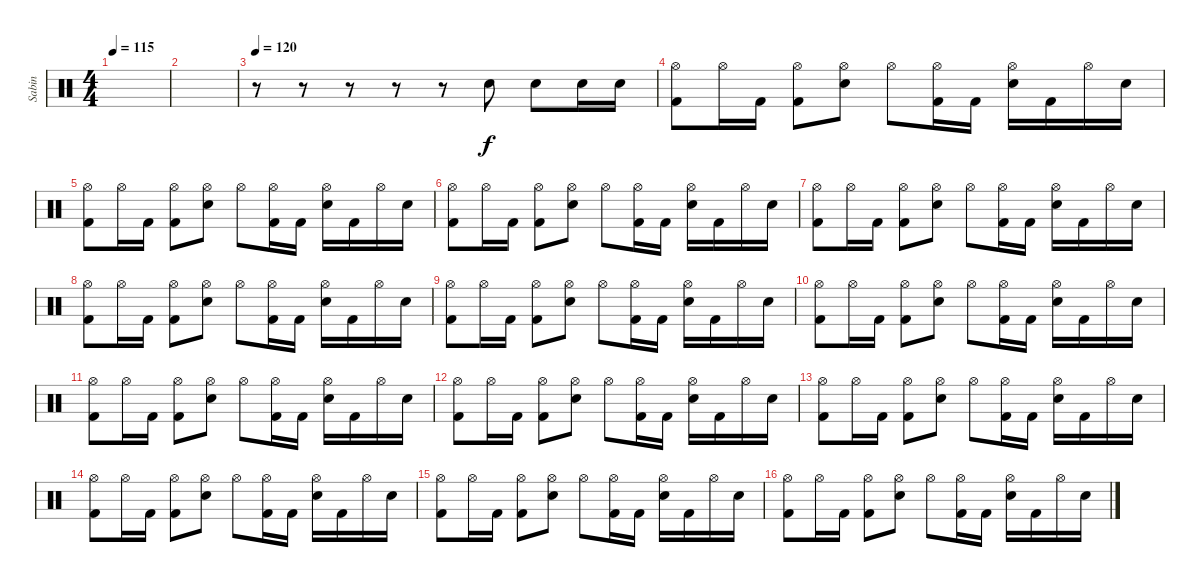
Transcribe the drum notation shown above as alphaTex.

\track ("Sabin" "Sabin") {instrument percussion}
\staff {score}
\articulation defaults
\ts (4 4)
\tempo 115
\clef neutral
\ks c
|
|
\tempo 120
r.8 r.8 r.8 r.8 r.8 "Snare (hit) 2".8 "Snare (hit) 2".8 "Snare (hit) 2".16 "Snare (hit) 2".16 |
("Hi-Hat (open)" "Kick (hit) 2").8 "Hi-Hat (open)".16 "Kick (hit) 2".16 ("Hi-Hat (open)" "Kick (hit) 2").8 ("Snare (hit) 2" "Hi-Hat (open)").8 "Hi-Hat (open)".8 ("Hi-Hat (open)" "Kick (hit) 2").16 "Kick (hit) 2".16 ("Hi-Hat (open)" "Snare (hit) 2").16 "Kick (hit) 2".16 "Hi-Hat (open)".16 "Snare (hit) 2".16 |
("Hi-Hat (open)" "Kick (hit) 2").8 "Hi-Hat (open)".16 "Kick (hit) 2".16 ("Hi-Hat (open)" "Kick (hit) 2").8 ("Snare (hit) 2" "Hi-Hat (open)").8 "Hi-Hat (open)".8 ("Hi-Hat (open)" "Kick (hit) 2").16 "Kick (hit) 2".16 ("Hi-Hat (open)" "Snare (hit) 2").16 "Kick (hit) 2".16 "Hi-Hat (open)".16 "Snare (hit) 2".16 |
("Hi-Hat (open)" "Kick (hit) 2").8 "Hi-Hat (open)".16 "Kick (hit) 2".16 ("Hi-Hat (open)" "Kick (hit) 2").8 ("Snare (hit) 2" "Hi-Hat (open)").8 "Hi-Hat (open)".8 ("Hi-Hat (open)" "Kick (hit) 2").16 "Kick (hit) 2".16 ("Hi-Hat (open)" "Snare (hit) 2").16 "Kick (hit) 2".16 "Hi-Hat (open)".16 "Snare (hit) 2".16 |
("Hi-Hat (open)" "Kick (hit) 2").8 "Hi-Hat (open)".16 "Kick (hit) 2".16 ("Hi-Hat (open)" "Kick (hit) 2").8 ("Snare (hit) 2" "Hi-Hat (open)").8 "Hi-Hat (open)".8 ("Hi-Hat (open)" "Kick (hit) 2").16 "Kick (hit) 2".16 ("Hi-Hat (open)" "Snare (hit) 2").16 "Kick (hit) 2".16 "Hi-Hat (open)".16 "Snare (hit) 2".16 |
("Hi-Hat (open)" "Kick (hit) 2").8 "Hi-Hat (open)".16 "Kick (hit) 2".16 ("Hi-Hat (open)" "Kick (hit) 2").8 ("Snare (hit) 2" "Hi-Hat (open)").8 "Hi-Hat (open)".8 ("Hi-Hat (open)" "Kick (hit) 2").16 "Kick (hit) 2".16 ("Hi-Hat (open)" "Snare (hit) 2").16 "Kick (hit) 2".16 "Hi-Hat (open)".16 "Snare (hit) 2".16 |
("Hi-Hat (open)" "Kick (hit) 2").8 "Hi-Hat (open)".16 "Kick (hit) 2".16 ("Hi-Hat (open)" "Kick (hit) 2").8 ("Snare (hit) 2" "Hi-Hat (open)").8 "Hi-Hat (open)".8 ("Hi-Hat (open)" "Kick (hit) 2").16 "Kick (hit) 2".16 ("Hi-Hat (open)" "Snare (hit) 2").16 "Kick (hit) 2".16 "Hi-Hat (open)".16 "Snare (hit) 2".16 |
("Hi-Hat (open)" "Kick (hit) 2").8 "Hi-Hat (open)".16 "Kick (hit) 2".16 ("Hi-Hat (open)" "Kick (hit) 2").8 ("Snare (hit) 2" "Hi-Hat (open)").8 "Hi-Hat (open)".8 ("Hi-Hat (open)" "Kick (hit) 2").16 "Kick (hit) 2".16 ("Hi-Hat (open)" "Snare (hit) 2").16 "Kick (hit) 2".16 "Hi-Hat (open)".16 "Snare (hit) 2".16 |
("Hi-Hat (open)" "Kick (hit) 2").8 "Hi-Hat (open)".16 "Kick (hit) 2".16 ("Hi-Hat (open)" "Kick (hit) 2").8 ("Snare (hit) 2" "Hi-Hat (open)").8 "Hi-Hat (open)".8 ("Hi-Hat (open)" "Kick (hit) 2").16 "Kick (hit) 2".16 ("Hi-Hat (open)" "Snare (hit) 2").16 "Kick (hit) 2".16 "Hi-Hat (open)".16 "Snare (hit) 2".16 |
("Hi-Hat (open)" "Kick (hit) 2").8 "Hi-Hat (open)".16 "Kick (hit) 2".16 ("Hi-Hat (open)" "Kick (hit) 2").8 ("Snare (hit) 2" "Hi-Hat (open)").8 "Hi-Hat (open)".8 ("Hi-Hat (open)" "Kick (hit) 2").16 "Kick (hit) 2".16 ("Hi-Hat (open)" "Snare (hit) 2").16 "Kick (hit) 2".16 "Hi-Hat (open)".16 "Snare (hit) 2".16 |
("Hi-Hat (open)" "Kick (hit) 2").8 "Hi-Hat (open)".16 "Kick (hit) 2".16 ("Hi-Hat (open)" "Kick (hit) 2").8 ("Snare (hit) 2" "Hi-Hat (open)").8 "Hi-Hat (open)".8 ("Hi-Hat (open)" "Kick (hit) 2").16 "Kick (hit) 2".16 ("Hi-Hat (open)" "Snare (hit) 2").16 "Kick (hit) 2".16 "Hi-Hat (open)".16 "Snare (hit) 2".16 |
("Hi-Hat (open)" "Kick (hit) 2").8 "Hi-Hat (open)".16 "Kick (hit) 2".16 ("Hi-Hat (open)" "Kick (hit) 2").8 ("Snare (hit) 2" "Hi-Hat (open)").8 "Hi-Hat (open)".8 ("Hi-Hat (open)" "Kick (hit) 2").16 "Kick (hit) 2".16 ("Hi-Hat (open)" "Snare (hit) 2").16 "Kick (hit) 2".16 "Hi-Hat (open)".16 "Snare (hit) 2".16 |
("Hi-Hat (open)" "Kick (hit) 2").8 "Hi-Hat (open)".16 "Kick (hit) 2".16 ("Hi-Hat (open)" "Kick (hit) 2").8 ("Snare (hit) 2" "Hi-Hat (open)").8 "Hi-Hat (open)".8 ("Hi-Hat (open)" "Kick (hit) 2").16 "Kick (hit) 2".16 ("Hi-Hat (open)" "Snare (hit) 2").16 "Kick (hit) 2".16 "Hi-Hat (open)".16 "Snare (hit) 2".16 |
("Hi-Hat (open)" "Kick (hit) 2").8 "Hi-Hat (open)".16 "Kick (hit) 2".16 ("Hi-Hat (open)" "Kick (hit) 2").8 ("Snare (hit) 2" "Hi-Hat (open)").8 "Hi-Hat (open)".8 ("Hi-Hat (open)" "Kick (hit) 2").16 "Kick (hit) 2".16 ("Hi-Hat (open)" "Snare (hit) 2").16 "Kick (hit) 2".16 "Hi-Hat (open)".16 "Snare (hit) 2".16
